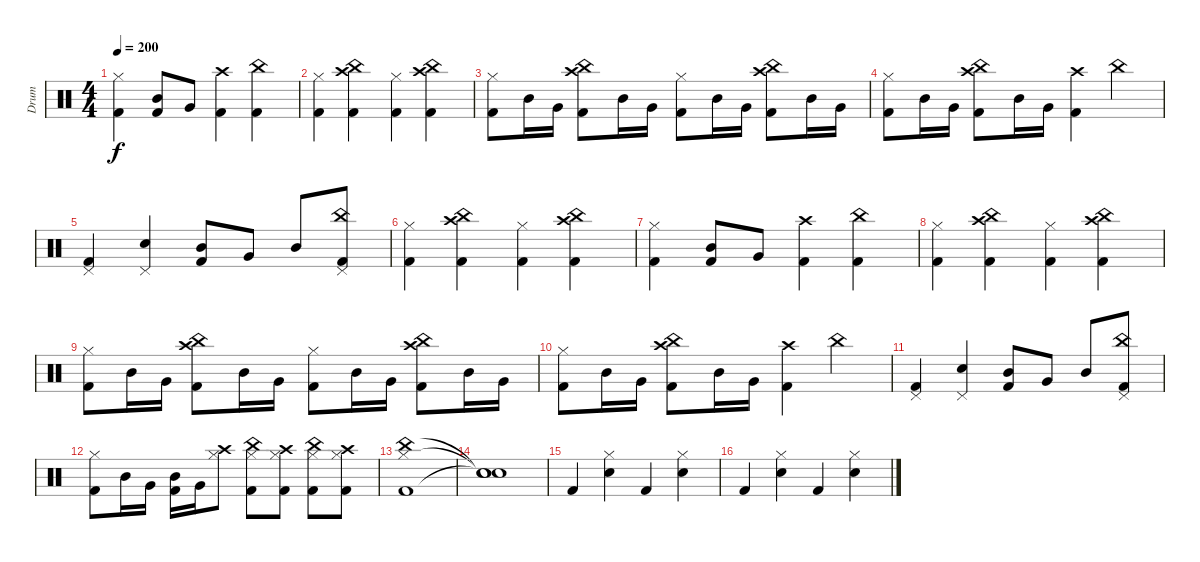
\track ("Drum" "Drum") {instrument percussion}
\staff {score}
\articulation defaults
\ts (4 4)
\tempo 200
\clef neutral
\ks c
("Hi-Hat (closed)" "Kick (hit) 2").4{dy f} ("Mid Tom (hit)" "Kick (hit) 2").8 "Very Low Tom (hit)".8 ("Crash high (hit)" "Kick (hit) 2").4 ("China (hit)" "Kick (hit) 2").4 |
("Hi-Hat (closed)" "Kick (hit) 2").4 ("China (hit)" "Crash high (hit)" "Kick (hit) 2").4 ("Hi-Hat (closed)" "Kick (hit) 2").4 ("China (hit)" "Crash high (hit)" "Kick (hit) 2").4 |
("Hi-Hat (closed)" "Kick (hit) 2").8 "Mid Tom (hit)".16 "Very Low Tom (hit)".16 ("China (hit)" "Crash high (hit)" "Kick (hit) 2").8 "Mid Tom (hit)".16 "Very Low Tom (hit)".16 ("Hi-Hat (closed)" "Kick (hit) 2").8 "Mid Tom (hit)".16 "Very Low Tom (hit)".16 ("China (hit)" "Crash high (hit)" "Kick (hit) 2").8 "Mid Tom (hit)".16 "Very Low Tom (hit)".16 |
("Hi-Hat (closed)" "Kick (hit) 2").8 "Mid Tom (hit)".16 "Very Low Tom (hit)".16 ("China (hit)" "Crash high (hit)" "Kick (hit) 2").8 "Mid Tom (hit)".16 "Very Low Tom (hit)".16 ("Crash high (hit)" "Kick (hit) 2").4 "China (hit)".4 |
("Pedal Hi-Hat (hit)" "Kick (hit) 2").4 ("Pedal Hi-Hat (hit)" "Electric Snare (hit)").4 ("Mid Tom (hit)" "Kick (hit) 2").8 "Very Low Tom (hit)".8 "Mid Tom (hit)".8 ("China (hit)" "Pedal Hi-Hat (hit)" "Kick (hit) 2").8 |
("Hi-Hat (closed)" "Kick (hit) 2").4 ("China (hit)" "Crash high (hit)" "Kick (hit) 2").4 ("Hi-Hat (closed)" "Kick (hit) 2").4 ("China (hit)" "Crash high (hit)" "Kick (hit) 2").4 |
("Hi-Hat (closed)" "Kick (hit) 2").4 ("Mid Tom (hit)" "Kick (hit) 2").8 "Very Low Tom (hit)".8 ("Crash high (hit)" "Kick (hit) 2").4 ("China (hit)" "Kick (hit) 2").4 |
("Hi-Hat (closed)" "Kick (hit) 2").4 ("China (hit)" "Crash high (hit)" "Kick (hit) 2").4 ("Hi-Hat (closed)" "Kick (hit) 2").4 ("China (hit)" "Crash high (hit)" "Kick (hit) 2").4 |
("Hi-Hat (closed)" "Kick (hit) 2").8 "Mid Tom (hit)".16 "Very Low Tom (hit)".16 ("China (hit)" "Crash high (hit)" "Kick (hit) 2").8 "Mid Tom (hit)".16 "Very Low Tom (hit)".16 ("Hi-Hat (closed)" "Kick (hit) 2").8 "Mid Tom (hit)".16 "Very Low Tom (hit)".16 ("China (hit)" "Crash high (hit)" "Kick (hit) 2").8 "Mid Tom (hit)".16 "Very Low Tom (hit)".16 |
("Hi-Hat (closed)" "Kick (hit) 2").8 "Mid Tom (hit)".16 "Very Low Tom (hit)".16 ("China (hit)" "Crash high (hit)" "Kick (hit) 2").8 "Mid Tom (hit)".16 "Very Low Tom (hit)".16 ("Crash high (hit)" "Kick (hit) 2").4 "China (hit)".4 |
("Pedal Hi-Hat (hit)" "Kick (hit) 2").4 ("Pedal Hi-Hat (hit)" "Electric Snare (hit)").4 ("Mid Tom (hit)" "Kick (hit) 2").8 "Very Low Tom (hit)".8 "Mid Tom (hit)".8 ("China (hit)" "Pedal Hi-Hat (hit)" "Kick (hit) 2").8 |
("Hi-Hat (closed)" "Kick (hit) 2").8 "Mid Tom (hit)".16 "Very Low Tom (hit)".16 ("Mid Tom (hit)" "Kick (hit) 2").16 "Very Low Tom (hit)".16 ("Crash high (hit)" "Hi-Hat (closed)").8 ("China (hit)" "Hi-Hat (closed)" "Kick (hit) 2").8 ("Crash high (hit)" "Hi-Hat (closed)" "Kick (hit) 2").8 ("China (hit)" "Hi-Hat (closed)" "Kick (hit) 2").8 ("Crash high (hit)" "Hi-Hat (closed)" "Kick (hit) 2").8 |
("China (hit)" "Hi-Hat (closed)" "Kick (hit) 2").1 |
("Snare (hit)"{t} "Snare (hit)"{t} "Snare (hit)"{t}).1 |
"Kick (hit) 2".4 ("Hi-Hat (closed)" "Electric Snare (hit)").4 "Kick (hit) 2".4 ("Hi-Hat (closed)" "Electric Snare (hit)").4 |
"Kick (hit) 2".4 ("Hi-Hat (closed)" "Electric Snare (hit)").4 "Kick (hit) 2".4 ("Hi-Hat (closed)" "Electric Snare (hit)").4
